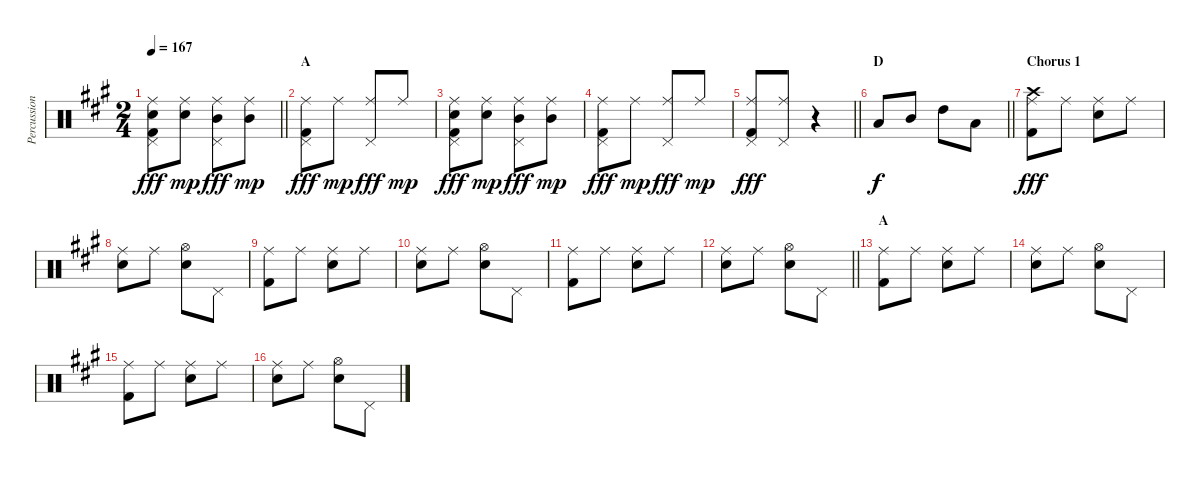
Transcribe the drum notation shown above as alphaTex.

\track ("Percussion" "Percussion") {instrument percussion}
\staff {score}
\articulation defaults
\ts (2 4)
\tempo 167
\clef neutral
\barLineRight lightlight
\ks a
("Ride (middle)" "Snare (hit) 2" "Pedal Hi-Hat (hit)" "Kick (hit) 2").8{dy fff} ("Ride (middle)" "Snare (hit) 2").8{dy mp} ("Ride (middle)" "Mid Tom (hit)" "Pedal Hi-Hat (hit)").8{dy fff} ("Ride (middle)" "Mid Tom (hit)").8{dy mp} |
\section ("" "A")
("Ride (middle)" "Pedal Hi-Hat (hit)" "Kick (hit) 2").8{dy fff} "Ride (middle)".8{dy mp} ("Ride (middle)" "Pedal Hi-Hat (hit)").8{dy fff} "Ride (middle)".8{dy mp} |
("Ride (middle)" "Snare (hit) 2" "Pedal Hi-Hat (hit)" "Kick (hit) 2").8{dy fff} ("Ride (middle)" "Snare (hit) 2").8{dy mp} ("Ride (middle)" "Mid Tom (hit)" "Pedal Hi-Hat (hit)").8{dy fff} ("Ride (middle)" "Mid Tom (hit)").8{dy mp} |
("Ride (middle)" "Pedal Hi-Hat (hit)" "Kick (hit) 2").8{dy fff} "Ride (middle)".8{dy mp} ("Ride (middle)" "Pedal Hi-Hat (hit)").8{dy fff} "Ride (middle)".8{dy mp} |
\barLineRight lightlight
("Ride (middle)" "Pedal Hi-Hat (hit)" "Kick (hit) 2").8{dy fff} ("Ride (middle)" "Pedal Hi-Hat (hit)").8 r.4 |
\section ("" "D")
\barLineRight lightlight "Low Tom (hit)".8{dy f} "Mid Tom (hit)".8 "High Tom (hit)".8 "Low Tom (hit)".8
|
\section ("" "Chorus 1")
("Ride (middle)" "Kick (hit) 2" "Crash high (hit)").8{dy fff} "Ride (middle)".8 ("Ride (middle)" "Snare (hit) 2").8 "Ride (middle)".8 |
("Ride (middle)" "Snare (hit) 2").8 "Ride (middle)".8 ("Hi-Hat (open)" "Snare (hit) 2").8 "Pedal Hi-Hat (hit)".8 |
("Ride (middle)" "Kick (hit) 2").8 "Ride (middle)".8 ("Ride (middle)" "Snare (hit) 2").8 "Ride (middle)".8 |
("Ride (middle)" "Snare (hit) 2").8 "Ride (middle)".8 ("Hi-Hat (open)" "Snare (hit) 2").8 "Pedal Hi-Hat (hit)".8 |
("Ride (middle)" "Kick (hit) 2").8 "Ride (middle)".8 ("Ride (middle)" "Snare (hit) 2").8 "Ride (middle)".8 |
\barLineRight lightlight
("Ride (middle)" "Snare (hit) 2").8 "Ride (middle)".8 ("Hi-Hat (open)" "Snare (hit) 2").8 "Pedal Hi-Hat (hit)".8 |
\section ("" "A")
("Ride (middle)" "Kick (hit) 2").8 "Ride (middle)".8 ("Ride (middle)" "Snare (hit) 2").8 "Ride (middle)".8 |
("Ride (middle)" "Snare (hit) 2").8 "Ride (middle)".8 ("Hi-Hat (open)" "Snare (hit) 2").8 "Pedal Hi-Hat (hit)".8 |
("Ride (middle)" "Kick (hit) 2").8 "Ride (middle)".8 ("Ride (middle)" "Snare (hit) 2").8 "Ride (middle)".8 |
("Ride (middle)" "Snare (hit) 2").8 "Ride (middle)".8 ("Hi-Hat (open)" "Snare (hit) 2").8 "Pedal Hi-Hat (hit)".8
